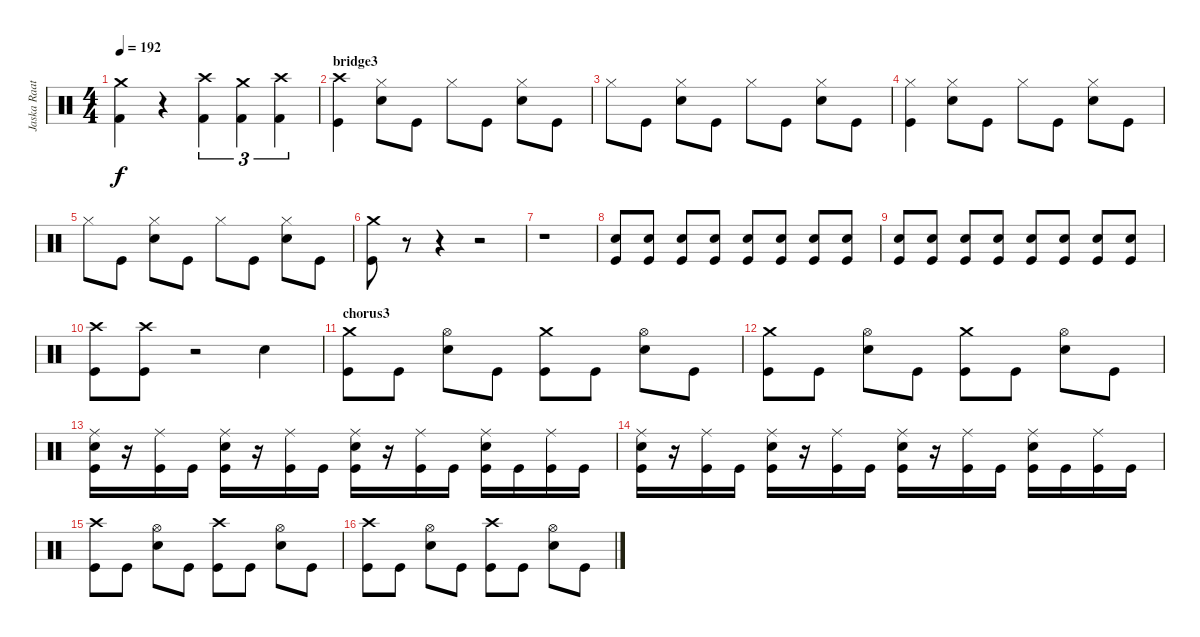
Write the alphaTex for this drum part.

\track ("Jaska Raatikainen" "Jaska Raat") {instrument percussion}
\staff {score}
\articulation defaults
\ts (4 4)
\tempo 192
\clef neutral
\ks c
("Crash medium (hit)" "Kick (hit) 2").4{dy f} r.4 ("Crash high (hit)" "Kick (hit) 2").4{tu (3 2)} ("Crash medium (hit)" "Kick (hit) 2").4{tu (3 2)} ("Crash high (hit)" "Kick (hit) 2").4{tu (3 2)} |
\section ("" "bridge3")
("Crash high (hit)" "Kick (hit)").4 ("Hi-Hat (closed)" "Electric Snare (hit)").8 "Kick (hit)".8 "Hi-Hat (closed)".8 "Kick (hit)".8 ("Hi-Hat (closed)" "Electric Snare (hit)").8 "Kick (hit)".8 |
"Hi-Hat (closed)".8 "Kick (hit)".8 ("Hi-Hat (closed)" "Electric Snare (hit)").8 "Kick (hit)".8 "Hi-Hat (closed)".8 "Kick (hit)".8 ("Hi-Hat (closed)" "Electric Snare (hit)").8 "Kick (hit)".8 |
("Hi-Hat (closed)" "Kick (hit)").4 ("Hi-Hat (closed)" "Electric Snare (hit)").8 "Kick (hit)".8 "Hi-Hat (closed)".8 "Kick (hit)".8 ("Hi-Hat (closed)" "Electric Snare (hit)").8 "Kick (hit)".8 |
"Hi-Hat (closed)".8 "Kick (hit)".8 ("Hi-Hat (closed)" "Electric Snare (hit)").8 "Kick (hit)".8 "Hi-Hat (closed)".8 "Kick (hit)".8 ("Hi-Hat (closed)" "Electric Snare (hit)").8 "Kick (hit)".8 |
("Crash medium (hit)" "Kick (hit)").8 r.8 r.4 r.2 |
r.1 |
("Electric Snare (hit)" "Kick (hit)").8 ("Electric Snare (hit)" "Kick (hit)").8 ("Electric Snare (hit)" "Kick (hit)").8 ("Electric Snare (hit)" "Kick (hit)").8 ("Electric Snare (hit)" "Kick (hit)").8 ("Electric Snare (hit)" "Kick (hit)").8 ("Electric Snare (hit)" "Kick (hit)").8 ("Electric Snare (hit)" "Kick (hit)").8 |
("Electric Snare (hit)" "Kick (hit)").8 ("Electric Snare (hit)" "Kick (hit)").8 ("Electric Snare (hit)" "Kick (hit)").8 ("Electric Snare (hit)" "Kick (hit)").8 ("Electric Snare (hit)" "Kick (hit)").8 ("Electric Snare (hit)" "Kick (hit)").8 ("Electric Snare (hit)" "Kick (hit)").8 ("Electric Snare (hit)" "Kick (hit)").8 |
("Crash high (hit)" "Kick (hit)").8 ("Crash high (hit)" "Kick (hit)").8 r.2 "Electric Snare (hit)".4 |
\section ("" "chorus3")
("Crash medium (hit)" "Kick (hit)").8 "Kick (hit)".8 ("Hi-Hat (open)" "Electric Snare (hit)").8 "Kick (hit)".8 ("Crash medium (hit)" "Kick (hit)").8 "Kick (hit)".8 ("Hi-Hat (open)" "Electric Snare (hit)").8 "Kick (hit)".8 |
("Crash medium (hit)" "Kick (hit)").8 "Kick (hit)".8 ("Hi-Hat (open)" "Electric Snare (hit)").8 "Kick (hit)".8 ("Crash medium (hit)" "Kick (hit)").8 "Kick (hit)".8 ("Hi-Hat (open)" "Electric Snare (hit)").8 "Kick (hit)".8 |
("Ride (middle)" "Electric Snare (hit)" "Kick (hit)").16 r.16 ("Ride (middle)" "Kick (hit)").16 "Kick (hit)".16 ("Ride (middle)" "Electric Snare (hit)" "Kick (hit)").16 r.16 ("Ride (middle)" "Kick (hit)").16 "Kick (hit)".16 ("Ride (middle)" "Electric Snare (hit)" "Kick (hit)").16 r.16 ("Ride (middle)" "Kick (hit)").16 "Kick (hit)".16 ("Ride (middle)" "Electric Snare (hit)" "Kick (hit)").16 "Kick (hit)".16 ("Ride (middle)" "Kick (hit)").16 "Kick (hit)".16 |
("Ride (middle)" "Electric Snare (hit)" "Kick (hit)").16 r.16 ("Ride (middle)" "Kick (hit)").16 "Kick (hit)".16 ("Ride (middle)" "Electric Snare (hit)" "Kick (hit)").16 r.16 ("Ride (middle)" "Kick (hit)").16 "Kick (hit)".16 ("Ride (middle)" "Electric Snare (hit)" "Kick (hit)").16 r.16 ("Ride (middle)" "Kick (hit)").16 "Kick (hit)".16 ("Ride (middle)" "Electric Snare (hit)" "Kick (hit)").16 "Kick (hit)".16 ("Ride (middle)" "Kick (hit)").16 "Kick (hit)".16 |
("Crash high (hit)" "Kick (hit)").8 "Kick (hit)".8 ("Hi-Hat (open)" "Electric Snare (hit)").8 "Kick (hit)".8 ("Crash high (hit)" "Kick (hit)").8 "Kick (hit)".8 ("Hi-Hat (open)" "Electric Snare (hit)").8 "Kick (hit)".8 |
("Crash high (hit)" "Kick (hit)").8 "Kick (hit)".8 ("Hi-Hat (open)" "Electric Snare (hit)").8 "Kick (hit)".8 ("Crash high (hit)" "Kick (hit)").8 "Kick (hit)".8 ("Hi-Hat (open)" "Electric Snare (hit)").8 "Kick (hit)".8
